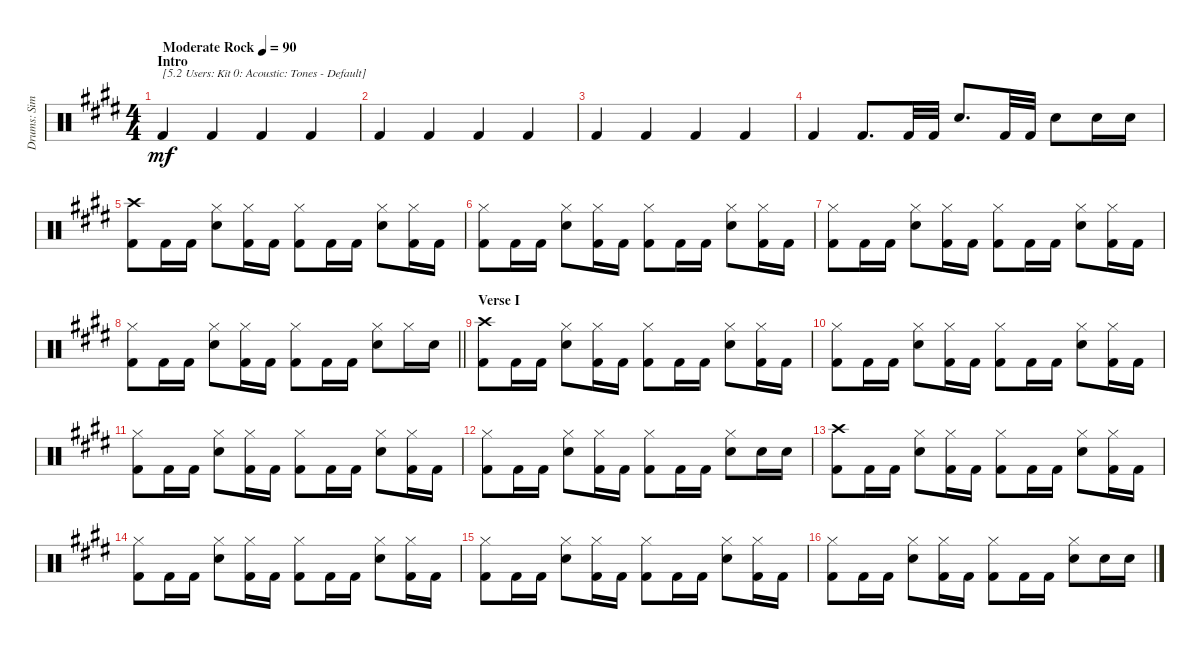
\track ("Drums: Simon" "Drums: Sim") {instrument percussion}
\staff {score}
\articulation defaults
\ts (4 4)
\section ("" "Intro")
\tempo (90 "Moderate Rock")
\clef neutral
\ks e "Kick (hit) 2".4{txt "[5.2 Users: Kit 0: Acoustic: Tones - Default]" dy mf} "Kick (hit) 2".4 "Kick (hit) 2".4 "Kick (hit) 2".4
|
"Kick (hit) 2".4 "Kick (hit) 2".4 "Kick (hit) 2".4 "Kick (hit) 2".4 |
"Kick (hit) 2".4 "Kick (hit) 2".4 "Kick (hit) 2".4 "Kick (hit) 2".4 |
"Kick (hit) 2".4 "Kick (hit) 2".8{d} "Kick (hit) 2".32 "Kick (hit) 2".32 "Electric Snare (hit)".8{d} "Kick (hit) 2".32 "Kick (hit) 2".32 "Electric Snare (hit)".8 "Electric Snare (hit)".16 "Electric Snare (hit)".16 |
("Crash high (hit)" "Kick (hit) 2").8 "Kick (hit) 2".16 "Kick (hit) 2".16 ("Hi-Hat (closed)" "Electric Snare (hit)").8 ("Hi-Hat (closed)" "Kick (hit) 2").16 "Kick (hit) 2".16 ("Hi-Hat (closed)" "Kick (hit) 2").8 "Kick (hit) 2".16 "Kick (hit) 2".16 ("Hi-Hat (closed)" "Electric Snare (hit)").8 ("Hi-Hat (closed)" "Kick (hit) 2").16 "Kick (hit) 2".16 |
("Hi-Hat (closed)" "Kick (hit) 2").8 "Kick (hit) 2".16 "Kick (hit) 2".16 ("Hi-Hat (closed)" "Electric Snare (hit)").8 ("Hi-Hat (closed)" "Kick (hit) 2").16 "Kick (hit) 2".16 ("Hi-Hat (closed)" "Kick (hit) 2").8 "Kick (hit) 2".16 "Kick (hit) 2".16 ("Hi-Hat (closed)" "Electric Snare (hit)").8 ("Hi-Hat (closed)" "Kick (hit) 2").16 "Kick (hit) 2".16 |
("Hi-Hat (closed)" "Kick (hit) 2").8 "Kick (hit) 2".16 "Kick (hit) 2".16 ("Hi-Hat (closed)" "Electric Snare (hit)").8 ("Hi-Hat (closed)" "Kick (hit) 2").16 "Kick (hit) 2".16 ("Hi-Hat (closed)" "Kick (hit) 2").8 "Kick (hit) 2".16 "Kick (hit) 2".16 ("Hi-Hat (closed)" "Electric Snare (hit)").8 ("Hi-Hat (closed)" "Kick (hit) 2").16 "Kick (hit) 2".16 |
\barLineRight lightlight
("Hi-Hat (closed)" "Kick (hit) 2").8 "Kick (hit) 2".16 "Kick (hit) 2".16 ("Hi-Hat (closed)" "Electric Snare (hit)").8 ("Hi-Hat (closed)" "Kick (hit) 2").16 "Kick (hit) 2".16 ("Hi-Hat (closed)" "Kick (hit) 2").8 "Kick (hit) 2".16 "Kick (hit) 2".16 ("Hi-Hat (closed)" "Electric Snare (hit)").8 "Hi-Hat (closed)".16 "Electric Snare (hit)".16 |
\section ("" "Verse I")
("Crash high (hit)" "Kick (hit) 2").8 "Kick (hit) 2".16 "Kick (hit) 2".16 ("Hi-Hat (closed)" "Electric Snare (hit)").8 ("Hi-Hat (closed)" "Kick (hit) 2").16 "Kick (hit) 2".16 ("Hi-Hat (closed)" "Kick (hit) 2").8 "Kick (hit) 2".16 "Kick (hit) 2".16 ("Hi-Hat (closed)" "Electric Snare (hit)").8 ("Hi-Hat (closed)" "Kick (hit) 2").16 "Kick (hit) 2".16 |
("Hi-Hat (closed)" "Kick (hit) 2").8 "Kick (hit) 2".16 "Kick (hit) 2".16 ("Hi-Hat (closed)" "Electric Snare (hit)").8 ("Hi-Hat (closed)" "Kick (hit) 2").16 "Kick (hit) 2".16 ("Hi-Hat (closed)" "Kick (hit) 2").8 "Kick (hit) 2".16 "Kick (hit) 2".16 ("Hi-Hat (closed)" "Electric Snare (hit)").8 ("Hi-Hat (closed)" "Kick (hit) 2").16 "Kick (hit) 2".16 |
("Hi-Hat (closed)" "Kick (hit) 2").8 "Kick (hit) 2".16 "Kick (hit) 2".16 ("Hi-Hat (closed)" "Electric Snare (hit)").8 ("Hi-Hat (closed)" "Kick (hit) 2").16 "Kick (hit) 2".16 ("Hi-Hat (closed)" "Kick (hit) 2").8 "Kick (hit) 2".16 "Kick (hit) 2".16 ("Hi-Hat (closed)" "Electric Snare (hit)").8 ("Hi-Hat (closed)" "Kick (hit) 2").16 "Kick (hit) 2".16 |
("Hi-Hat (closed)" "Kick (hit) 2").8 "Kick (hit) 2".16 "Kick (hit) 2".16 ("Hi-Hat (closed)" "Electric Snare (hit)").8 ("Hi-Hat (closed)" "Kick (hit) 2").16 "Kick (hit) 2".16 ("Hi-Hat (closed)" "Kick (hit) 2").8 "Kick (hit) 2".16 "Kick (hit) 2".16 ("Hi-Hat (closed)" "Electric Snare (hit)").8 "Electric Snare (hit)".16 "Electric Snare (hit)".16 |
("Crash high (hit)" "Kick (hit) 2").8 "Kick (hit) 2".16 "Kick (hit) 2".16 ("Hi-Hat (closed)" "Electric Snare (hit)").8 ("Hi-Hat (closed)" "Kick (hit) 2").16 "Kick (hit) 2".16 ("Hi-Hat (closed)" "Kick (hit) 2").8 "Kick (hit) 2".16 "Kick (hit) 2".16 ("Hi-Hat (closed)" "Electric Snare (hit)").8 ("Hi-Hat (closed)" "Kick (hit) 2").16 "Kick (hit) 2".16 |
("Hi-Hat (closed)" "Kick (hit) 2").8 "Kick (hit) 2".16 "Kick (hit) 2".16 ("Hi-Hat (closed)" "Electric Snare (hit)").8 ("Hi-Hat (closed)" "Kick (hit) 2").16 "Kick (hit) 2".16 ("Hi-Hat (closed)" "Kick (hit) 2").8 "Kick (hit) 2".16 "Kick (hit) 2".16 ("Hi-Hat (closed)" "Electric Snare (hit)").8 ("Hi-Hat (closed)" "Kick (hit) 2").16 "Kick (hit) 2".16 |
("Hi-Hat (closed)" "Kick (hit) 2").8 "Kick (hit) 2".16 "Kick (hit) 2".16 ("Hi-Hat (closed)" "Electric Snare (hit)").8 ("Hi-Hat (closed)" "Kick (hit) 2").16 "Kick (hit) 2".16 ("Hi-Hat (closed)" "Kick (hit) 2").8 "Kick (hit) 2".16 "Kick (hit) 2".16 ("Hi-Hat (closed)" "Electric Snare (hit)").8 ("Hi-Hat (closed)" "Kick (hit) 2").16 "Kick (hit) 2".16 |
("Hi-Hat (closed)" "Kick (hit) 2").8 "Kick (hit) 2".16 "Kick (hit) 2".16 ("Hi-Hat (closed)" "Electric Snare (hit)").8 ("Hi-Hat (closed)" "Kick (hit) 2").16 "Kick (hit) 2".16 ("Hi-Hat (closed)" "Kick (hit) 2").8 "Kick (hit) 2".16 "Kick (hit) 2".16 ("Hi-Hat (closed)" "Electric Snare (hit)").8 "Electric Snare (hit)".16 "Electric Snare (hit)".16
